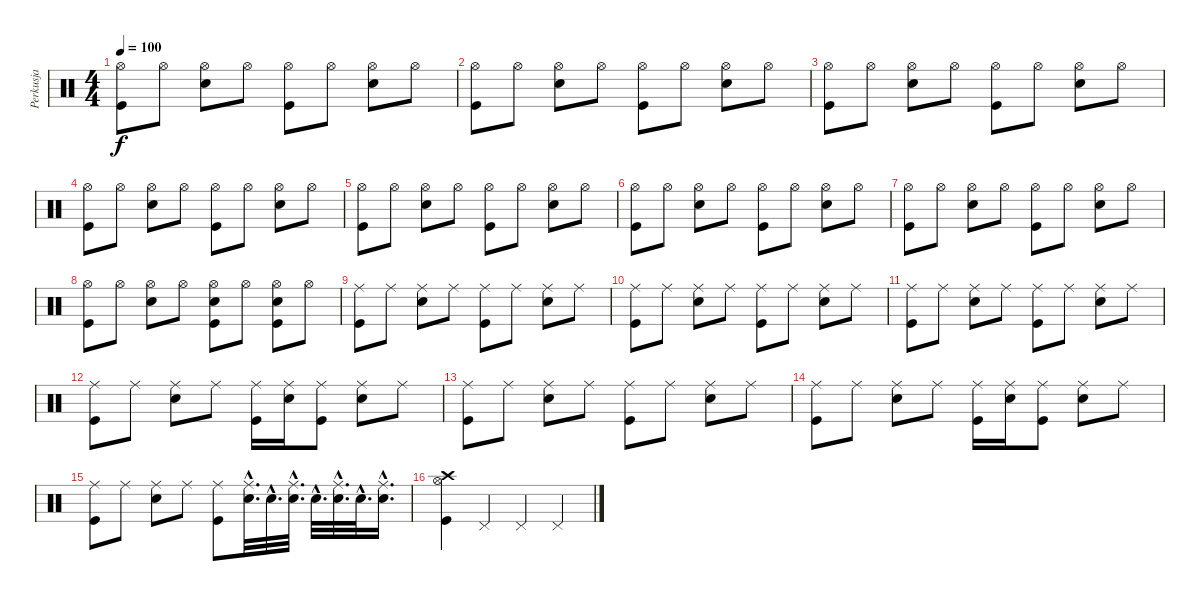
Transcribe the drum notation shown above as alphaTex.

\track ("Perkusja" "Perkusja") {instrument percussion}
\staff {score}
\articulation defaults
\ts (4 4)
\tempo 100
\clef neutral
\ks c
("Hi-Hat (open)" "Kick (hit)").8{dy f} "Hi-Hat (open)".8 ("Hi-Hat (open)" "Metronome (bell)").8 "Hi-Hat (open)".8 ("Hi-Hat (open)" "Kick (hit)").8 "Hi-Hat (open)".8 ("Hi-Hat (open)" "Metronome (bell)").8 "Hi-Hat (open)".8 |
("Hi-Hat (open)" "Kick (hit)").8 "Hi-Hat (open)".8 ("Hi-Hat (open)" "Metronome (bell)").8 "Hi-Hat (open)".8 ("Hi-Hat (open)" "Kick (hit)").8 "Hi-Hat (open)".8 ("Hi-Hat (open)" "Metronome (bell)").8 "Hi-Hat (open)".8 |
("Hi-Hat (open)" "Kick (hit)").8 "Hi-Hat (open)".8 ("Hi-Hat (open)" "Metronome (bell)").8 "Hi-Hat (open)".8 ("Hi-Hat (open)" "Kick (hit)").8 "Hi-Hat (open)".8 ("Hi-Hat (open)" "Metronome (bell)").8 "Hi-Hat (open)".8 |
("Hi-Hat (open)" "Kick (hit)").8 "Hi-Hat (open)".8 ("Hi-Hat (open)" "Metronome (bell)").8 "Hi-Hat (open)".8 ("Hi-Hat (open)" "Kick (hit)").8 "Hi-Hat (open)".8 ("Hi-Hat (open)" "Metronome (bell)").8 "Hi-Hat (open)".8 |
("Hi-Hat (open)" "Kick (hit)").8 "Hi-Hat (open)".8 ("Hi-Hat (open)" "Metronome (bell)").8 "Hi-Hat (open)".8 ("Hi-Hat (open)" "Kick (hit)").8 "Hi-Hat (open)".8 ("Hi-Hat (open)" "Metronome (bell)").8 "Hi-Hat (open)".8 |
("Hi-Hat (open)" "Kick (hit)").8 "Hi-Hat (open)".8 ("Hi-Hat (open)" "Metronome (bell)").8 "Hi-Hat (open)".8 ("Hi-Hat (open)" "Kick (hit)").8 "Hi-Hat (open)".8 ("Hi-Hat (open)" "Metronome (bell)").8 "Hi-Hat (open)".8 |
("Hi-Hat (open)" "Kick (hit)").8 "Hi-Hat (open)".8 ("Hi-Hat (open)" "Metronome (bell)").8 "Hi-Hat (open)".8 ("Hi-Hat (open)" "Kick (hit)").8 "Hi-Hat (open)".8 ("Hi-Hat (open)" "Metronome (bell)").8 "Hi-Hat (open)".8 |
("Hi-Hat (open)" "Kick (hit)").8 "Hi-Hat (open)".8 ("Hi-Hat (open)" "Metronome (bell)").8 "Hi-Hat (open)".8 ("Hi-Hat (open)" "Metronome (bell)" "Kick (hit)").8 "Hi-Hat (open)".8 ("Hi-Hat (open)" "Metronome (bell)" "Kick (hit)").8 "Hi-Hat (open)".8 |
("Ride (middle)" "Kick (hit)").8 "Ride (middle)".8 ("Ride (middle)" "Metronome (bell)").8 "Ride (middle)".8 ("Ride (middle)" "Kick (hit)").8 "Ride (middle)".8 ("Ride (middle)" "Metronome (bell)").8 "Ride (middle)".8 |
("Ride (middle)" "Kick (hit)").8 "Ride (middle)".8 ("Ride (middle)" "Metronome (bell)").8 "Ride (middle)".8 ("Ride (middle)" "Kick (hit)").8 "Ride (middle)".8 ("Ride (middle)" "Metronome (bell)").8 "Ride (middle)".8 |
("Ride (middle)" "Kick (hit)").8 "Ride (middle)".8 ("Ride (middle)" "Metronome (bell)").8 "Ride (middle)".8 ("Ride (middle)" "Kick (hit)").8 "Ride (middle)".8 ("Ride (middle)" "Metronome (bell)").8 "Ride (middle)".8 |
("Ride (middle)" "Kick (hit)").8 "Ride (middle)".8 ("Ride (middle)" "Metronome (bell)").8 "Ride (middle)".8 ("Ride (middle)" "Kick (hit)").16 ("Ride (middle)" "Metronome (bell)").16 ("Ride (middle)" "Kick (hit)").8 ("Ride (middle)" "Metronome (bell)").8 "Ride (middle)".8 |
("Ride (middle)" "Kick (hit)").8 "Ride (middle)".8 ("Ride (middle)" "Metronome (bell)").8 "Ride (middle)".8 ("Ride (middle)" "Kick (hit)").8 "Ride (middle)".8 ("Ride (middle)" "Metronome (bell)").8 "Ride (middle)".8 |
("Ride (middle)" "Kick (hit)").8 "Ride (middle)".8 ("Ride (middle)" "Metronome (bell)").8 "Ride (middle)".8 ("Ride (middle)" "Kick (hit)").16 ("Ride (middle)" "Metronome (bell)").16 ("Ride (middle)" "Kick (hit)").8 ("Ride (middle)" "Metronome (bell)").8 "Ride (middle)".8 |
("Ride (middle)" "Kick (hit)").8 "Ride (middle)".8 ("Ride (middle)" "Metronome (bell)").8 "Ride (middle)".8 ("Ride (middle)" "Kick (hit)").8 ("Ride (middle)"{hac} "Metronome (bell)"{hac}).32{d} "Metronome (bell)"{hac}.32{d} ("Ride (middle)"{hac} "Metronome (bell)"{hac}).32{d} "Metronome (bell)"{hac}.32{d} ("Ride (middle)"{hac} "Metronome (bell)"{hac}).32{d} "Metronome (bell)"{hac}.32{d} ("Ride (middle)"{hac} "Metronome (bell)"{hac}).16{d} |
("Hi-Hat (open)" "Crash high (hit)" "Kick (hit)").4 "Pedal Hi-Hat (hit)".4 "Pedal Hi-Hat (hit)".4 "Pedal Hi-Hat (hit)".4
